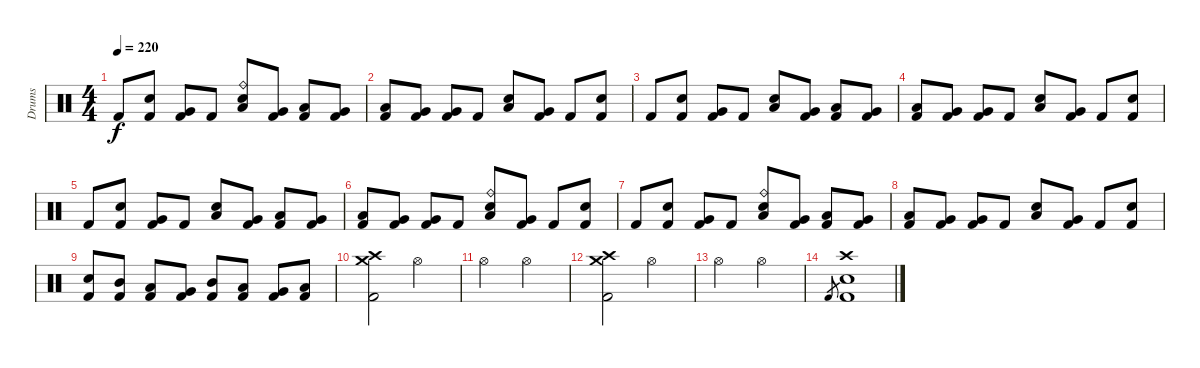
\track ("Drums" "Drums") {instrument percussion}
\staff {score}
\articulation defaults
\ts (4 4)
\tempo 220
\clef neutral
\ks c "Kick (hit) 2".8{dy f}
("Electric Snare (hit)" "Kick (hit) 2").8 ("Very Low Tom (hit)" "Kick (hit) 2").8 "Kick (hit) 2".8 ("Ride (bell)" "Low Floor Tom (hit)" "Electric Snare (hit)").8 ("Very Low Tom (hit)" "Kick (hit) 2").8 ("Low Tom (hit)" "Kick (hit) 2").8 ("Very Low Tom (hit)" "Kick (hit) 2").8 |
("Low Tom (hit)" "Kick (hit) 2").8 ("Very Low Tom (hit)" "Kick (hit) 2").8 ("Very Low Tom (hit)" "Kick (hit) 2").8 "Kick (hit) 2".8 ("Low Floor Tom (hit)" "Electric Snare (hit)").8 ("Very Low Tom (hit)" "Kick (hit) 2").8 "Kick (hit) 2".8 ("Electric Snare (hit)" "Kick (hit) 2").8 |
"Kick (hit) 2".8 ("Electric Snare (hit)" "Kick (hit) 2").8 ("Very Low Tom (hit)" "Kick (hit) 2").8 "Kick (hit) 2".8 ("Low Floor Tom (hit)" "Electric Snare (hit)").8 ("Very Low Tom (hit)" "Kick (hit) 2").8 ("Low Tom (hit)" "Kick (hit) 2").8 ("Very Low Tom (hit)" "Kick (hit) 2").8 |
("Low Tom (hit)" "Kick (hit) 2").8 ("Very Low Tom (hit)" "Kick (hit) 2").8 ("Very Low Tom (hit)" "Kick (hit) 2").8 "Kick (hit) 2".8 ("Low Floor Tom (hit)" "Electric Snare (hit)").8 ("Very Low Tom (hit)" "Kick (hit) 2").8 "Kick (hit) 2".8 ("Electric Snare (hit)" "Kick (hit) 2").8 |
"Kick (hit) 2".8 ("Electric Snare (hit)" "Kick (hit) 2").8 ("Very Low Tom (hit)" "Kick (hit) 2").8 "Kick (hit) 2".8 ("Low Floor Tom (hit)" "Electric Snare (hit)").8 ("Very Low Tom (hit)" "Kick (hit) 2").8 ("Low Tom (hit)" "Kick (hit) 2").8 ("Very Low Tom (hit)" "Kick (hit) 2").8 |
("Low Tom (hit)" "Kick (hit) 2").8 ("Very Low Tom (hit)" "Kick (hit) 2").8 ("Very Low Tom (hit)" "Kick (hit) 2").8 "Kick (hit) 2".8 ("Ride (bell)" "Low Floor Tom (hit)" "Electric Snare (hit)").8 ("Very Low Tom (hit)" "Kick (hit) 2").8 "Kick (hit) 2".8 ("Electric Snare (hit)" "Kick (hit) 2").8 |
"Kick (hit) 2".8 ("Electric Snare (hit)" "Kick (hit) 2").8 ("Very Low Tom (hit)" "Kick (hit) 2").8 "Kick (hit) 2".8 ("Ride (bell)" "Low Floor Tom (hit)" "Electric Snare (hit)").8 ("Very Low Tom (hit)" "Kick (hit) 2").8 ("Low Tom (hit)" "Kick (hit) 2").8 ("Very Low Tom (hit)" "Kick (hit) 2").8 |
("Low Tom (hit)" "Kick (hit) 2").8 ("Very Low Tom (hit)" "Kick (hit) 2").8 ("Very Low Tom (hit)" "Kick (hit) 2").8 "Kick (hit) 2".8 ("Low Floor Tom (hit)" "Electric Snare (hit)").8 ("Very Low Tom (hit)" "Kick (hit) 2").8 "Kick (hit) 2".8 ("Electric Snare (hit)" "Kick (hit) 2").8 |
("Electric Snare (hit)" "Kick (hit) 2").8 ("Mid Tom (hit)" "Kick (hit) 2").8 ("Low Tom (hit)" "Kick (hit) 2").8 ("Very Low Tom (hit)" "Kick (hit) 2").8 ("Mid Tom (hit)" "Kick (hit) 2").8 ("Low Tom (hit)" "Kick (hit) 2").8 ("Very Low Tom (hit)" "Kick (hit) 2").8 ("Low Floor Tom (hit)" "Kick (hit) 2").8 |
("Crash high (hit)" "Crash medium (hit)" "Kick (hit) 2").2 "Hi-Hat (open)".2 |
"Hi-Hat (open)".2 "Hi-Hat (open)".2 |
("Crash high (hit)" "Crash medium (hit)" "Kick (hit) 2").2 "Hi-Hat (open)".2 |
"Hi-Hat (open)".2 "Hi-Hat (open)".2 |
"Kick (hit) 2".8{gr} ("Crash high (hit)" "Electric Snare (hit)" "Kick (hit) 2").1
